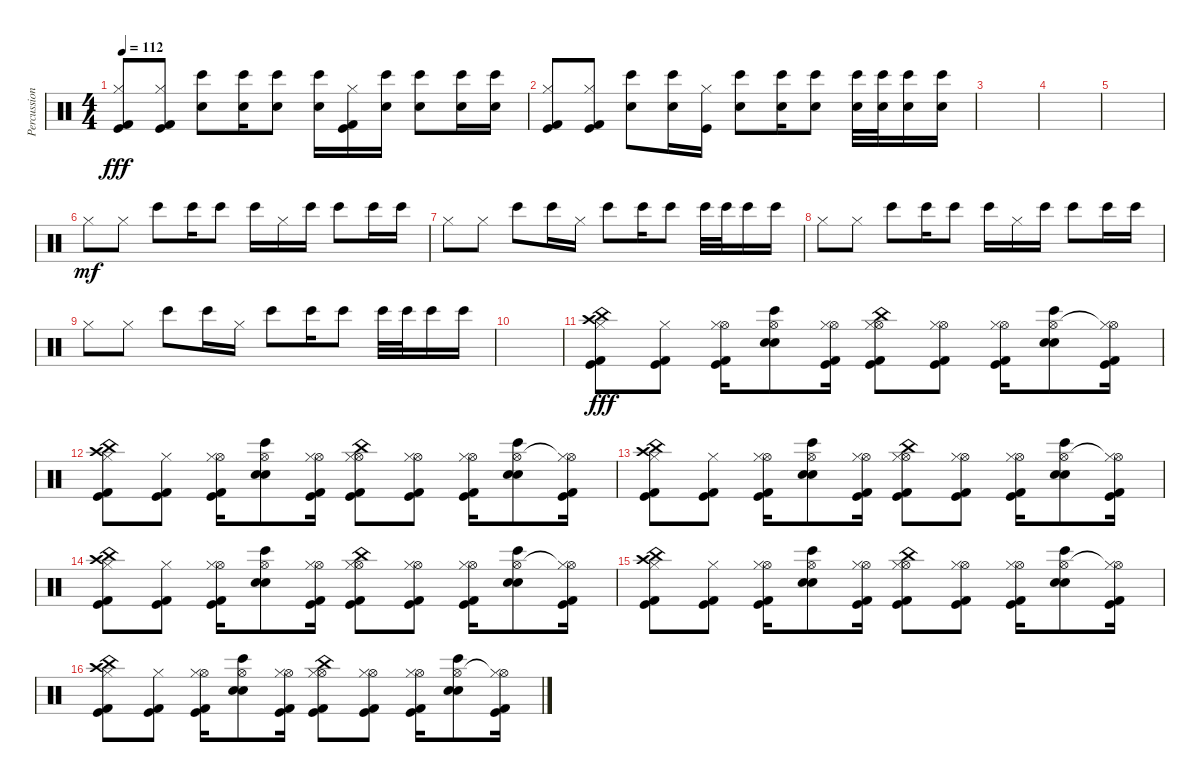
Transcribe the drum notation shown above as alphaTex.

\track ("Percussion" "Percussion") {instrument percussion}
\staff {score}
\articulation defaults
\ts (4 4)
\tempo 112
\clef neutral
\ks c
("Kick (hit)" "Hi-Hat (closed)" "Kick (hit) 2").8{dy fff} ("Hi-Hat (closed)" "Kick (hit)" "Kick (hit) 2").8 ("Bongo High (hit)" "Snare (hit) 2").8 ("Bongo High (hit)" "Snare (hit) 2").16 ("Bongo High (hit)" "Snare (hit) 2").8 ("Snare (hit) 2" "Bongo High (hit)").16 ("Hi-Hat (closed)" "Kick (hit) 2" "Kick (hit)").16 ("Bongo High (hit)" "Snare (hit) 2").16 ("Bongo High (hit)" "Snare (hit) 2").8 ("Bongo High (hit)" "Snare (hit) 2").16 ("Bongo High (hit)" "Snare (hit) 2").16 |
("Kick (hit)" "Hi-Hat (closed)" "Kick (hit) 2").8 ("Hi-Hat (closed)" "Kick (hit)" "Kick (hit) 2").8 ("Bongo High (hit)" "Snare (hit) 2").8 ("Bongo High (hit)" "Snare (hit) 2").16 ("Hi-Hat (closed)" "Kick (hit)").16 ("Snare (hit) 2" "Bongo High (hit)").8 ("Bongo High (hit)" "Snare (hit) 2").16 ("Bongo High (hit)" "Snare (hit) 2").8 ("Bongo High (hit)" "Snare (hit) 2").32 ("Bongo High (hit)" "Snare (hit) 2").32 ("Bongo High (hit)" "Snare (hit) 2").16 ("Bongo High (hit)" "Snare (hit) 2").16 |
|
|
|
"Hi-Hat (closed)".8{dy mf} "Hi-Hat (closed)".8 "Bongo High (hit)".8 "Bongo High (hit)".16 "Bongo High (hit)".8 "Bongo High (hit)".16 "Hi-Hat (closed)".16 "Bongo High (hit)".16 "Bongo High (hit)".8 "Bongo High (hit)".16 "Bongo High (hit)".16 |
"Hi-Hat (closed)".8 "Hi-Hat (closed)".8 "Bongo High (hit)".8 "Bongo High (hit)".16 "Hi-Hat (closed)".16 "Bongo High (hit)".8 "Bongo High (hit)".16 "Bongo High (hit)".8 "Bongo High (hit)".32 "Bongo High (hit)".32 "Bongo High (hit)".16 "Bongo High (hit)".16 |
"Hi-Hat (closed)".8 "Hi-Hat (closed)".8 "Bongo High (hit)".8 "Bongo High (hit)".16 "Bongo High (hit)".8 "Bongo High (hit)".16 "Hi-Hat (closed)".16 "Bongo High (hit)".16 "Bongo High (hit)".8 "Bongo High (hit)".16 "Bongo High (hit)".16 |
"Hi-Hat (closed)".8 "Hi-Hat (closed)".8 "Bongo High (hit)".8 "Bongo High (hit)".16 "Hi-Hat (closed)".16 "Bongo High (hit)".8 "Bongo High (hit)".16 "Bongo High (hit)".8 "Bongo High (hit)".32 "Bongo High (hit)".32 "Bongo High (hit)".16 "Bongo High (hit)".16 |
|
("China (hit)" "Crash high (hit)" "Kick (hit)" "Hi-Hat (closed)" "Kick (hit) 2").8{dy fff} ("Kick (hit)" "Hi-Hat (closed)" "Kick (hit) 2").8 ("Hi-Hat (open)" "Kick (hit)" "Hi-Hat (closed)" "Kick (hit) 2").16 ("Hi-Hat (open)" "Electric Snare (hit)" "Bongo High (hit)" "Snare (hit) 2").8 ("Hi-Hat (open)" "Kick (hit)" "Hi-Hat (closed)" "Kick (hit) 2").16 ("China (hit)" "Hi-Hat (open)" "Kick (hit)" "Hi-Hat (closed)" "Kick (hit) 2").8 ("Hi-Hat (open)" "Kick (hit)" "Hi-Hat (closed)" "Kick (hit) 2").8 ("Hi-Hat (open)" "Kick (hit)" "Hi-Hat (closed)" "Kick (hit) 2").16 ("Hi-Hat (open)" "Electric Snare (hit)" "Bongo High (hit)" "Snare (hit) 2").8 ("Hi-Hat (open)"{t} "Kick (hit)" "Hi-Hat (closed)" "Kick (hit) 2").16 |
("China (hit)" "Crash high (hit)" "Kick (hit)" "Hi-Hat (closed)" "Kick (hit) 2").8 ("Kick (hit)" "Hi-Hat (closed)" "Kick (hit) 2").8 ("Hi-Hat (open)" "Kick (hit)" "Hi-Hat (closed)" "Kick (hit) 2").16 ("Hi-Hat (open)" "Electric Snare (hit)" "Bongo High (hit)" "Snare (hit) 2").8 ("Hi-Hat (open)" "Kick (hit)" "Hi-Hat (closed)" "Kick (hit) 2").16 ("China (hit)" "Hi-Hat (open)" "Kick (hit)" "Hi-Hat (closed)" "Kick (hit) 2").8 ("Hi-Hat (open)" "Kick (hit)" "Hi-Hat (closed)" "Kick (hit) 2").8 ("Hi-Hat (open)" "Kick (hit)" "Hi-Hat (closed)" "Kick (hit) 2").16 ("Hi-Hat (open)" "Electric Snare (hit)" "Bongo High (hit)" "Snare (hit) 2").8 ("Hi-Hat (open)"{t} "Kick (hit)" "Hi-Hat (closed)" "Kick (hit) 2").16 |
("China (hit)" "Crash high (hit)" "Kick (hit)" "Hi-Hat (closed)" "Kick (hit) 2").8 ("Kick (hit)" "Hi-Hat (closed)" "Kick (hit) 2").8 ("Hi-Hat (open)" "Kick (hit)" "Hi-Hat (closed)" "Kick (hit) 2").16 ("Hi-Hat (open)" "Electric Snare (hit)" "Bongo High (hit)" "Snare (hit) 2").8 ("Hi-Hat (open)" "Kick (hit)" "Hi-Hat (closed)" "Kick (hit) 2").16 ("China (hit)" "Hi-Hat (open)" "Kick (hit)" "Hi-Hat (closed)" "Kick (hit) 2").8 ("Hi-Hat (open)" "Kick (hit)" "Hi-Hat (closed)" "Kick (hit) 2").8 ("Hi-Hat (open)" "Kick (hit)" "Hi-Hat (closed)" "Kick (hit) 2").16 ("Hi-Hat (open)" "Electric Snare (hit)" "Bongo High (hit)" "Snare (hit) 2").8 ("Hi-Hat (open)"{t} "Kick (hit)" "Hi-Hat (closed)" "Kick (hit) 2").16 |
("China (hit)" "Crash high (hit)" "Kick (hit)" "Hi-Hat (closed)" "Kick (hit) 2").8 ("Kick (hit)" "Hi-Hat (closed)" "Kick (hit) 2").8 ("Hi-Hat (open)" "Kick (hit)" "Hi-Hat (closed)" "Kick (hit) 2").16 ("Hi-Hat (open)" "Electric Snare (hit)" "Bongo High (hit)" "Snare (hit) 2").8 ("Hi-Hat (open)" "Kick (hit)" "Hi-Hat (closed)" "Kick (hit) 2").16 ("China (hit)" "Hi-Hat (open)" "Kick (hit)" "Hi-Hat (closed)" "Kick (hit) 2").8 ("Hi-Hat (open)" "Kick (hit)" "Hi-Hat (closed)" "Kick (hit) 2").8 ("Hi-Hat (open)" "Kick (hit)" "Hi-Hat (closed)" "Kick (hit) 2").16 ("Hi-Hat (open)" "Electric Snare (hit)" "Bongo High (hit)" "Snare (hit) 2").8 ("Hi-Hat (open)"{t} "Kick (hit)" "Hi-Hat (closed)" "Kick (hit) 2").16 |
("China (hit)" "Crash high (hit)" "Kick (hit)" "Hi-Hat (closed)" "Kick (hit) 2").8 ("Kick (hit)" "Hi-Hat (closed)" "Kick (hit) 2").8 ("Hi-Hat (open)" "Kick (hit)" "Hi-Hat (closed)" "Kick (hit) 2").16 ("Hi-Hat (open)" "Electric Snare (hit)" "Bongo High (hit)" "Snare (hit) 2").8 ("Hi-Hat (open)" "Kick (hit)" "Hi-Hat (closed)" "Kick (hit) 2").16 ("China (hit)" "Hi-Hat (open)" "Kick (hit)" "Hi-Hat (closed)" "Kick (hit) 2").8 ("Hi-Hat (open)" "Kick (hit)" "Hi-Hat (closed)" "Kick (hit) 2").8 ("Hi-Hat (open)" "Kick (hit)" "Hi-Hat (closed)" "Kick (hit) 2").16 ("Hi-Hat (open)" "Electric Snare (hit)" "Bongo High (hit)" "Snare (hit) 2").8 ("Hi-Hat (open)"{t} "Kick (hit)" "Hi-Hat (closed)" "Kick (hit) 2").16 |
("China (hit)" "Crash high (hit)" "Kick (hit)" "Hi-Hat (closed)" "Kick (hit) 2").8 ("Kick (hit)" "Hi-Hat (closed)" "Kick (hit) 2").8 ("Hi-Hat (open)" "Kick (hit)" "Hi-Hat (closed)" "Kick (hit) 2").16 ("Hi-Hat (open)" "Electric Snare (hit)" "Bongo High (hit)" "Snare (hit) 2").8 ("Hi-Hat (open)" "Kick (hit)" "Hi-Hat (closed)" "Kick (hit) 2").16 ("China (hit)" "Hi-Hat (open)" "Kick (hit)" "Hi-Hat (closed)" "Kick (hit) 2").8 ("Hi-Hat (open)" "Kick (hit)" "Hi-Hat (closed)" "Kick (hit) 2").8 ("Hi-Hat (open)" "Kick (hit)" "Hi-Hat (closed)" "Kick (hit) 2").16 ("Hi-Hat (open)" "Electric Snare (hit)" "Bongo High (hit)" "Snare (hit) 2").8 ("Hi-Hat (open)"{t} "Kick (hit)" "Hi-Hat (closed)" "Kick (hit) 2").16
